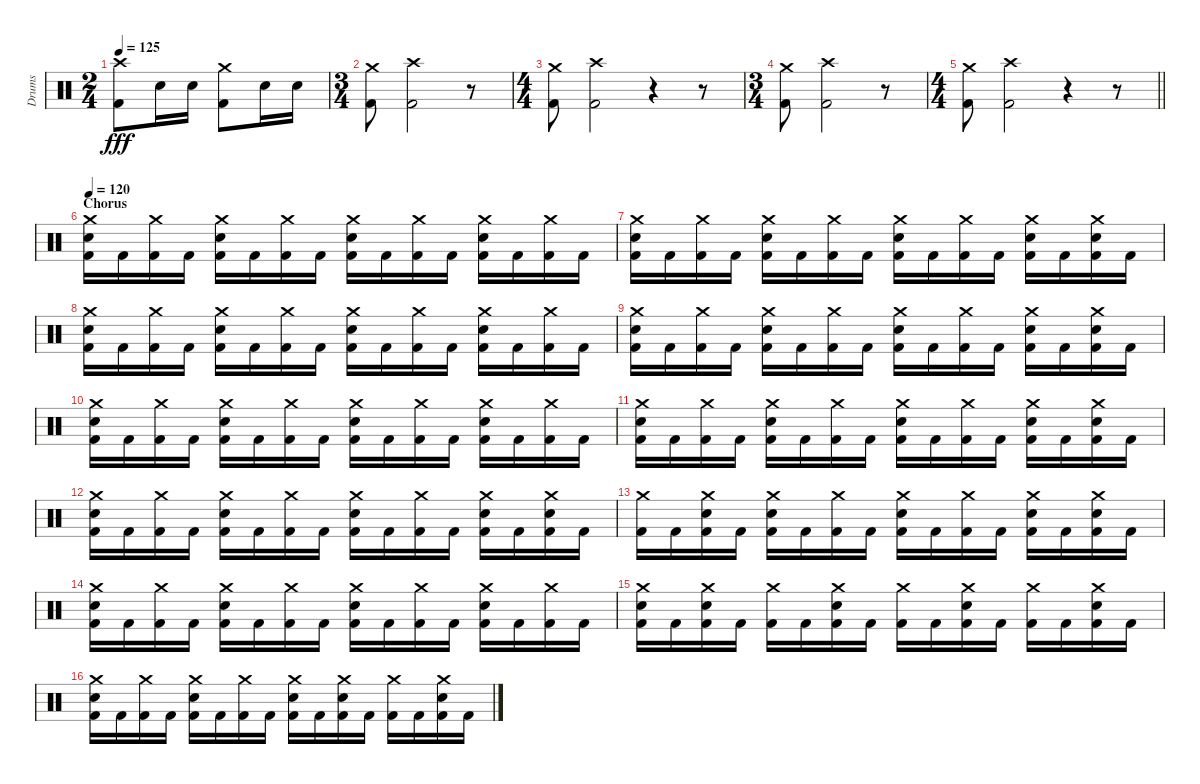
\track ("Drums" "Drums") {instrument percussion}
\staff {score}
\articulation defaults
\ts (2 4)
\tempo 125
\clef neutral
\ks c
("Crash high (hit)" "Kick (hit) 2").8{dy fff} "Electric Snare (hit)".16 "Electric Snare (hit)".16 ("Crash medium (hit)" "Kick (hit) 2").8 "Electric Snare (hit)".16 "Electric Snare (hit)".16 |
\ts (3 4)
("Crash medium (hit)" "Kick (hit) 2").8 ("Crash high (hit)" "Kick (hit) 2").2 r.8 |
\ts (4 4)
("Crash medium (hit)" "Kick (hit) 2").8 ("Crash high (hit)" "Kick (hit) 2").2 r.4 r.8 |
\ts (3 4)
("Crash medium (hit)" "Kick (hit) 2").8 ("Crash high (hit)" "Kick (hit) 2").2 r.8 |
\ts (4 4)
\barLineRight lightlight
("Crash medium (hit)" "Kick (hit) 2").8 ("Crash high (hit)" "Kick (hit) 2").2 r.4 r.8 |
\section ("" "Chorus")
\tempo 120
("Crash medium (hit)" "Electric Snare (hit)" "Kick (hit) 2").16 "Kick (hit) 2".16 ("Crash medium (hit)" "Kick (hit) 2").16 "Kick (hit) 2".16 ("Crash medium (hit)" "Electric Snare (hit)" "Kick (hit) 2").16 "Kick (hit) 2".16 ("Crash medium (hit)" "Kick (hit) 2").16 "Kick (hit) 2".16 ("Crash medium (hit)" "Electric Snare (hit)" "Kick (hit) 2").16 "Kick (hit) 2".16 ("Crash medium (hit)" "Kick (hit) 2").16 "Kick (hit) 2".16 ("Crash medium (hit)" "Electric Snare (hit)" "Kick (hit) 2").16 "Kick (hit) 2".16 ("Crash medium (hit)" "Kick (hit) 2").16 "Kick (hit) 2".16 |
("Crash medium (hit)" "Electric Snare (hit)" "Kick (hit) 2").16 "Kick (hit) 2".16 ("Crash medium (hit)" "Kick (hit) 2").16 "Kick (hit) 2".16 ("Crash medium (hit)" "Electric Snare (hit)" "Kick (hit) 2").16 "Kick (hit) 2".16 ("Crash medium (hit)" "Kick (hit) 2").16 "Kick (hit) 2".16 ("Crash medium (hit)" "Electric Snare (hit)" "Kick (hit) 2").16 "Kick (hit) 2".16 ("Crash medium (hit)" "Kick (hit) 2").16 "Kick (hit) 2".16 ("Crash medium (hit)" "Electric Snare (hit)" "Kick (hit) 2").16 "Kick (hit) 2".16 ("Crash medium (hit)" "Electric Snare (hit)" "Kick (hit) 2").16 "Kick (hit) 2".16 |
("Crash medium (hit)" "Electric Snare (hit)" "Kick (hit) 2").16 "Kick (hit) 2".16 ("Crash medium (hit)" "Kick (hit) 2").16 "Kick (hit) 2".16 ("Crash medium (hit)" "Electric Snare (hit)" "Kick (hit) 2").16 "Kick (hit) 2".16 ("Crash medium (hit)" "Kick (hit) 2").16 "Kick (hit) 2".16 ("Crash medium (hit)" "Electric Snare (hit)" "Kick (hit) 2").16 "Kick (hit) 2".16 ("Crash medium (hit)" "Kick (hit) 2").16 "Kick (hit) 2".16 ("Crash medium (hit)" "Electric Snare (hit)" "Kick (hit) 2").16 "Kick (hit) 2".16 ("Crash medium (hit)" "Kick (hit) 2").16 "Kick (hit) 2".16 |
("Crash medium (hit)" "Electric Snare (hit)" "Kick (hit) 2").16 "Kick (hit) 2".16 ("Crash medium (hit)" "Kick (hit) 2").16 "Kick (hit) 2".16 ("Crash medium (hit)" "Electric Snare (hit)" "Kick (hit) 2").16 "Kick (hit) 2".16 ("Crash medium (hit)" "Kick (hit) 2").16 "Kick (hit) 2".16 ("Crash medium (hit)" "Electric Snare (hit)" "Kick (hit) 2").16 "Kick (hit) 2".16 ("Crash medium (hit)" "Kick (hit) 2").16 "Kick (hit) 2".16 ("Crash medium (hit)" "Electric Snare (hit)" "Kick (hit) 2").16 "Kick (hit) 2".16 ("Crash medium (hit)" "Electric Snare (hit)" "Kick (hit) 2").16 "Kick (hit) 2".16 |
("Crash medium (hit)" "Electric Snare (hit)" "Kick (hit) 2").16 "Kick (hit) 2".16 ("Crash medium (hit)" "Kick (hit) 2").16 "Kick (hit) 2".16 ("Crash medium (hit)" "Electric Snare (hit)" "Kick (hit) 2").16 "Kick (hit) 2".16 ("Crash medium (hit)" "Kick (hit) 2").16 "Kick (hit) 2".16 ("Crash medium (hit)" "Electric Snare (hit)" "Kick (hit) 2").16 "Kick (hit) 2".16 ("Crash medium (hit)" "Kick (hit) 2").16 "Kick (hit) 2".16 ("Crash medium (hit)" "Electric Snare (hit)" "Kick (hit) 2").16 "Kick (hit) 2".16 ("Crash medium (hit)" "Kick (hit) 2").16 "Kick (hit) 2".16 |
("Crash medium (hit)" "Electric Snare (hit)" "Kick (hit) 2").16 "Kick (hit) 2".16 ("Crash medium (hit)" "Kick (hit) 2").16 "Kick (hit) 2".16 ("Crash medium (hit)" "Electric Snare (hit)" "Kick (hit) 2").16 "Kick (hit) 2".16 ("Crash medium (hit)" "Kick (hit) 2").16 "Kick (hit) 2".16 ("Crash medium (hit)" "Electric Snare (hit)" "Kick (hit) 2").16 "Kick (hit) 2".16 ("Crash medium (hit)" "Kick (hit) 2").16 "Kick (hit) 2".16 ("Crash medium (hit)" "Electric Snare (hit)" "Kick (hit) 2").16 "Kick (hit) 2".16 ("Crash medium (hit)" "Electric Snare (hit)" "Kick (hit) 2").16 "Kick (hit) 2".16 |
("Crash medium (hit)" "Electric Snare (hit)" "Kick (hit) 2").16 "Kick (hit) 2".16 ("Crash medium (hit)" "Kick (hit) 2").16 "Kick (hit) 2".16 ("Crash medium (hit)" "Electric Snare (hit)" "Kick (hit) 2").16 "Kick (hit) 2".16 ("Crash medium (hit)" "Kick (hit) 2").16 "Kick (hit) 2".16 ("Crash medium (hit)" "Electric Snare (hit)" "Kick (hit) 2").16 "Kick (hit) 2".16 ("Crash medium (hit)" "Kick (hit) 2").16 "Kick (hit) 2".16 ("Crash medium (hit)" "Electric Snare (hit)" "Kick (hit) 2").16 "Kick (hit) 2".16 ("Crash medium (hit)" "Electric Snare (hit)" "Kick (hit) 2").16 "Kick (hit) 2".16 |
("Crash medium (hit)" "Kick (hit) 2").16 "Kick (hit) 2".16 ("Crash medium (hit)" "Electric Snare (hit)" "Kick (hit) 2").16 "Kick (hit) 2".16 ("Crash medium (hit)" "Electric Snare (hit)" "Kick (hit) 2").16 "Kick (hit) 2".16 ("Crash medium (hit)" "Kick (hit) 2").16 "Kick (hit) 2".16 ("Crash medium (hit)" "Electric Snare (hit)" "Kick (hit) 2").16 "Kick (hit) 2".16 ("Crash medium (hit)" "Kick (hit) 2").16 "Kick (hit) 2".16 ("Crash medium (hit)" "Electric Snare (hit)" "Kick (hit) 2").16 "Kick (hit) 2".16 ("Crash medium (hit)" "Electric Snare (hit)" "Kick (hit) 2").16 "Kick (hit) 2".16 |
("Crash medium (hit)" "Electric Snare (hit)" "Kick (hit) 2").16 "Kick (hit) 2".16 ("Crash medium (hit)" "Kick (hit) 2").16 "Kick (hit) 2".16 ("Crash medium (hit)" "Electric Snare (hit)" "Kick (hit) 2").16 "Kick (hit) 2".16 ("Crash medium (hit)" "Kick (hit) 2").16 "Kick (hit) 2".16 ("Crash medium (hit)" "Electric Snare (hit)" "Kick (hit) 2").16 "Kick (hit) 2".16 ("Crash medium (hit)" "Kick (hit) 2").16 "Kick (hit) 2".16 ("Crash medium (hit)" "Electric Snare (hit)" "Kick (hit) 2").16 "Kick (hit) 2".16 ("Crash medium (hit)" "Kick (hit) 2").16 "Kick (hit) 2".16 |
("Crash medium (hit)" "Electric Snare (hit)" "Kick (hit) 2").16 "Kick (hit) 2".16 ("Crash medium (hit)" "Electric Snare (hit)" "Kick (hit) 2").16 "Kick (hit) 2".16 ("Crash medium (hit)" "Kick (hit) 2").16 "Kick (hit) 2".16 ("Crash medium (hit)" "Electric Snare (hit)" "Kick (hit) 2").16 "Kick (hit) 2".16 ("Crash medium (hit)" "Kick (hit) 2").16 "Kick (hit) 2".16 ("Crash medium (hit)" "Electric Snare (hit)" "Kick (hit) 2").16 "Kick (hit) 2".16 ("Crash medium (hit)" "Kick (hit) 2").16 "Kick (hit) 2".16 ("Crash medium (hit)" "Electric Snare (hit)" "Kick (hit) 2").16 "Kick (hit) 2".16 |
("Crash medium (hit)" "Electric Snare (hit)" "Kick (hit) 2").16 "Kick (hit) 2".16 ("Crash medium (hit)" "Kick (hit) 2").16 "Kick (hit) 2".16 ("Crash medium (hit)" "Electric Snare (hit)" "Kick (hit) 2").16 "Kick (hit) 2".16 ("Crash medium (hit)" "Kick (hit) 2").16 "Kick (hit) 2".16 ("Crash medium (hit)" "Electric Snare (hit)" "Kick (hit) 2").16 "Kick (hit) 2".16 ("Crash medium (hit)" "Electric Snare (hit)" "Kick (hit) 2").16 "Kick (hit) 2".16 ("Crash medium (hit)" "Kick (hit) 2").16 "Kick (hit) 2".16 ("Crash medium (hit)" "Electric Snare (hit)" "Kick (hit) 2").16 "Kick (hit) 2".16
